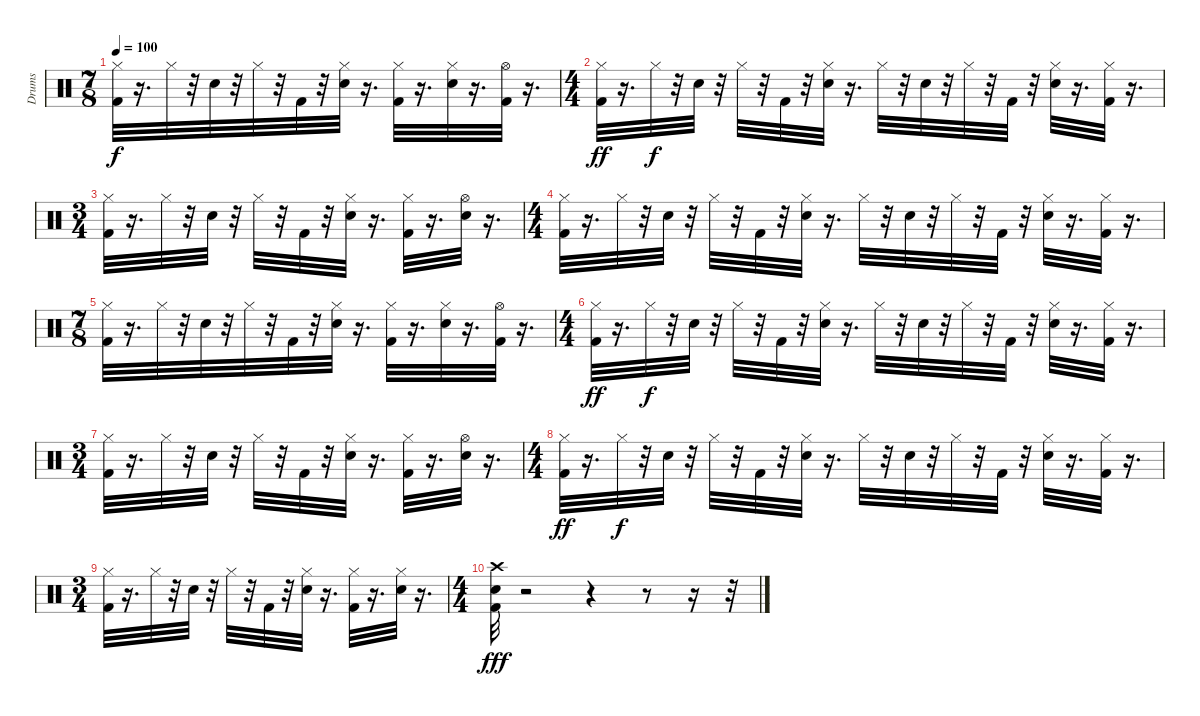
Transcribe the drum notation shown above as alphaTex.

\track ("Drums               " "Drums     ") {instrument percussion}
\staff {score}
\articulation defaults
\ts (7 8)
\tempo 100
\clef neutral
\ks c
("Hi-Hat (closed)" "Kick (hit) 2").32{dy f} r.16{d} "Hi-Hat (closed)".32 r.32 "Electric Snare (hit)".32 r.32 "Hi-Hat (closed)".32 r.32 "Kick (hit) 2".32 r.32 ("Hi-Hat (closed)" "Electric Snare (hit)").32 r.16{d} ("Hi-Hat (closed)" "Kick (hit) 2").32 r.16{d} ("Hi-Hat (closed)" "Electric Snare (hit)").32 r.16{d} ("Hi-Hat (open)" "Kick (hit) 2").32 r.16{d} |
\ts (4 4)
("Hi-Hat (closed)" "Kick (hit) 2").32{dy ff} r.16{d} "Hi-Hat (closed)".32{dy f} r.32 "Electric Snare (hit)".32 r.32 "Hi-Hat (closed)".32 r.32 "Kick (hit) 2".32 r.32 ("Hi-Hat (closed)" "Electric Snare (hit)").32 r.16{d} "Hi-Hat (closed)".32 r.32 "Electric Snare (hit)".32 r.32 "Hi-Hat (closed)".32 r.32 "Kick (hit) 2".32 r.32 ("Hi-Hat (closed)" "Electric Snare (hit)").32 r.16{d} ("Hi-Hat (closed)" "Kick (hit) 2").32 r.16{d} |
\ts (3 4)
("Hi-Hat (closed)" "Kick (hit) 2").32 r.16{d} "Hi-Hat (closed)".32 r.32 "Electric Snare (hit)".32 r.32 "Hi-Hat (closed)".32 r.32 "Kick (hit) 2".32 r.32 ("Hi-Hat (closed)" "Electric Snare (hit)").32 r.16{d} ("Hi-Hat (closed)" "Kick (hit) 2").32 r.16{d} ("Hi-Hat (open)" "Electric Snare (hit)").32 r.16{d} |
\ts (4 4)
("Hi-Hat (closed)" "Kick (hit) 2").32 r.16{d} "Hi-Hat (closed)".32 r.32 "Electric Snare (hit)".32 r.32 "Hi-Hat (closed)".32 r.32 "Kick (hit) 2".32 r.32 ("Hi-Hat (closed)" "Electric Snare (hit)").32 r.16{d} "Hi-Hat (closed)".32 r.32 "Electric Snare (hit)".32 r.32 "Hi-Hat (closed)".32 r.32 "Kick (hit) 2".32 r.32 ("Hi-Hat (closed)" "Electric Snare (hit)").32 r.16{d} ("Hi-Hat (closed)" "Kick (hit) 2").32 r.16{d} |
\ts (7 8)
("Hi-Hat (closed)" "Kick (hit) 2").32 r.16{d} "Hi-Hat (closed)".32 r.32 "Electric Snare (hit)".32 r.32 "Hi-Hat (closed)".32 r.32 "Kick (hit) 2".32 r.32 ("Hi-Hat (closed)" "Electric Snare (hit)").32 r.16{d} ("Hi-Hat (closed)" "Kick (hit) 2").32 r.16{d} ("Hi-Hat (closed)" "Electric Snare (hit)").32 r.16{d} ("Hi-Hat (open)" "Kick (hit) 2").32 r.16{d} |
\ts (4 4)
("Hi-Hat (closed)" "Kick (hit) 2").32{dy ff} r.16{d} "Hi-Hat (closed)".32{dy f} r.32 "Electric Snare (hit)".32 r.32 "Hi-Hat (closed)".32 r.32 "Kick (hit) 2".32 r.32 ("Hi-Hat (closed)" "Electric Snare (hit)").32 r.16{d} "Hi-Hat (closed)".32 r.32 "Electric Snare (hit)".32 r.32 "Hi-Hat (closed)".32 r.32 "Kick (hit) 2".32 r.32 ("Hi-Hat (closed)" "Electric Snare (hit)").32 r.16{d} ("Hi-Hat (closed)" "Kick (hit) 2").32 r.16{d} |
\ts (3 4)
("Hi-Hat (closed)" "Kick (hit) 2").32 r.16{d} "Hi-Hat (closed)".32 r.32 "Electric Snare (hit)".32 r.32 "Hi-Hat (closed)".32 r.32 "Kick (hit) 2".32 r.32 ("Hi-Hat (closed)" "Electric Snare (hit)").32 r.16{d} ("Hi-Hat (closed)" "Kick (hit) 2").32 r.16{d} ("Hi-Hat (open)" "Electric Snare (hit)").32 r.16{d} |
\ts (4 4)
("Hi-Hat (closed)" "Kick (hit) 2").32{dy ff} r.16{d} "Hi-Hat (closed)".32{dy f} r.32 "Electric Snare (hit)".32 r.32 "Hi-Hat (closed)".32 r.32 "Kick (hit) 2".32 r.32 ("Hi-Hat (closed)" "Electric Snare (hit)").32 r.16{d} "Hi-Hat (closed)".32 r.32 "Electric Snare (hit)".32 r.32 "Hi-Hat (closed)".32 r.32 "Kick (hit) 2".32 r.32 ("Hi-Hat (closed)" "Electric Snare (hit)").32 r.16{d} ("Hi-Hat (closed)" "Kick (hit) 2").32 r.16{d} |
\ts (3 4)
("Hi-Hat (closed)" "Kick (hit) 2").32 r.16{d} "Hi-Hat (closed)".32 r.32 "Electric Snare (hit)".32 r.32 "Hi-Hat (closed)".32 r.32 "Kick (hit) 2".32 r.32 ("Hi-Hat (closed)" "Electric Snare (hit)").32 r.16{d} ("Hi-Hat (closed)" "Kick (hit) 2").32 r.16{d} ("Hi-Hat (closed)" "Electric Snare (hit)").32 r.16{d} |
\ts (4 4)
("Crash high (hit)" "Kick (hit) 2" "Electric Snare (hit)").32{dy fff} r.2 r.4 r.8 r.16 r.32
